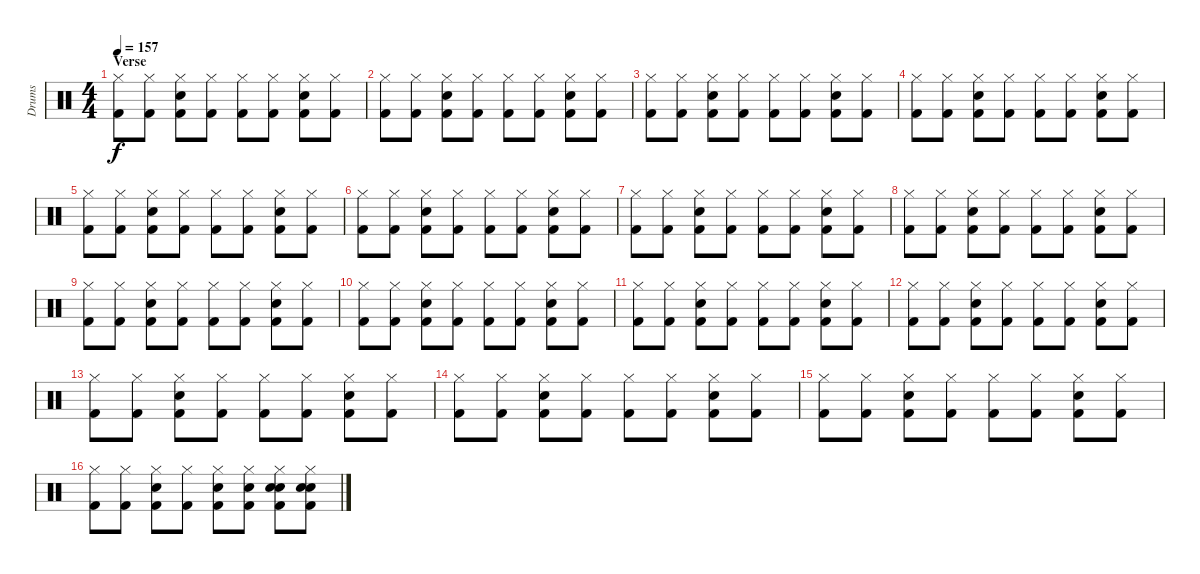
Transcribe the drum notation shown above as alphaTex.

\track ("Drums" "Drums") {instrument percussion}
\staff {score}
\articulation defaults
\ts (4 4)
\section ("" "Verse")
\tempo 157
\clef neutral
\ks c
("Hi-Hat (closed)" "Kick (hit) 2").8{dy f} ("Hi-Hat (closed)" "Kick (hit) 2").8 ("Hi-Hat (closed)" "Electric Snare (hit)" "Kick (hit) 2").8 ("Hi-Hat (closed)" "Kick (hit) 2").8 ("Hi-Hat (closed)" "Kick (hit) 2").8 ("Hi-Hat (closed)" "Kick (hit) 2").8 ("Hi-Hat (closed)" "Kick (hit) 2" "Electric Snare (hit)").8 ("Hi-Hat (closed)" "Kick (hit) 2").8 |
("Hi-Hat (closed)" "Kick (hit) 2").8 ("Hi-Hat (closed)" "Kick (hit) 2").8 ("Hi-Hat (closed)" "Electric Snare (hit)" "Kick (hit) 2").8 ("Hi-Hat (closed)" "Kick (hit) 2").8 ("Hi-Hat (closed)" "Kick (hit) 2").8 ("Hi-Hat (closed)" "Kick (hit) 2").8 ("Hi-Hat (closed)" "Kick (hit) 2" "Electric Snare (hit)").8 ("Hi-Hat (closed)" "Kick (hit) 2").8 |
("Hi-Hat (closed)" "Kick (hit) 2").8 ("Hi-Hat (closed)" "Kick (hit) 2").8 ("Hi-Hat (closed)" "Electric Snare (hit)" "Kick (hit) 2").8 ("Hi-Hat (closed)" "Kick (hit) 2").8 ("Hi-Hat (closed)" "Kick (hit) 2").8 ("Hi-Hat (closed)" "Kick (hit) 2").8 ("Hi-Hat (closed)" "Kick (hit) 2" "Electric Snare (hit)").8 ("Hi-Hat (closed)" "Kick (hit) 2").8 |
("Hi-Hat (closed)" "Kick (hit) 2").8 ("Hi-Hat (closed)" "Kick (hit) 2").8 ("Hi-Hat (closed)" "Electric Snare (hit)" "Kick (hit) 2").8 ("Hi-Hat (closed)" "Kick (hit) 2").8 ("Hi-Hat (closed)" "Kick (hit) 2").8 ("Hi-Hat (closed)" "Kick (hit) 2").8 ("Hi-Hat (closed)" "Kick (hit) 2" "Electric Snare (hit)").8 ("Hi-Hat (closed)" "Kick (hit) 2").8 |
("Hi-Hat (closed)" "Kick (hit) 2").8 ("Hi-Hat (closed)" "Kick (hit) 2").8 ("Hi-Hat (closed)" "Electric Snare (hit)" "Kick (hit) 2").8 ("Hi-Hat (closed)" "Kick (hit) 2").8 ("Hi-Hat (closed)" "Kick (hit) 2").8 ("Hi-Hat (closed)" "Kick (hit) 2").8 ("Hi-Hat (closed)" "Kick (hit) 2" "Electric Snare (hit)").8 ("Hi-Hat (closed)" "Kick (hit) 2").8 |
("Hi-Hat (closed)" "Kick (hit) 2").8 ("Hi-Hat (closed)" "Kick (hit) 2").8 ("Hi-Hat (closed)" "Electric Snare (hit)" "Kick (hit) 2").8 ("Hi-Hat (closed)" "Kick (hit) 2").8 ("Hi-Hat (closed)" "Kick (hit) 2").8 ("Hi-Hat (closed)" "Kick (hit) 2").8 ("Hi-Hat (closed)" "Kick (hit) 2" "Electric Snare (hit)").8 ("Hi-Hat (closed)" "Kick (hit) 2").8 |
("Hi-Hat (closed)" "Kick (hit) 2").8 ("Hi-Hat (closed)" "Kick (hit) 2").8 ("Hi-Hat (closed)" "Electric Snare (hit)" "Kick (hit) 2").8 ("Hi-Hat (closed)" "Kick (hit) 2").8 ("Hi-Hat (closed)" "Kick (hit) 2").8 ("Hi-Hat (closed)" "Kick (hit) 2").8 ("Hi-Hat (closed)" "Kick (hit) 2" "Electric Snare (hit)").8 ("Hi-Hat (closed)" "Kick (hit) 2").8 |
("Hi-Hat (closed)" "Kick (hit) 2").8 ("Hi-Hat (closed)" "Kick (hit) 2").8 ("Hi-Hat (closed)" "Electric Snare (hit)" "Kick (hit) 2").8 ("Hi-Hat (closed)" "Kick (hit) 2").8 ("Hi-Hat (closed)" "Kick (hit) 2").8 ("Hi-Hat (closed)" "Kick (hit) 2").8 ("Hi-Hat (closed)" "Kick (hit) 2" "Electric Snare (hit)").8 ("Hi-Hat (closed)" "Kick (hit) 2").8 |
("Hi-Hat (closed)" "Kick (hit) 2").8 ("Hi-Hat (closed)" "Kick (hit) 2").8 ("Hi-Hat (closed)" "Electric Snare (hit)" "Kick (hit) 2").8 ("Hi-Hat (closed)" "Kick (hit) 2").8 ("Hi-Hat (closed)" "Kick (hit) 2").8 ("Hi-Hat (closed)" "Kick (hit) 2").8 ("Hi-Hat (closed)" "Kick (hit) 2" "Electric Snare (hit)").8 ("Hi-Hat (closed)" "Kick (hit) 2").8 |
("Hi-Hat (closed)" "Kick (hit) 2").8 ("Hi-Hat (closed)" "Kick (hit) 2").8 ("Hi-Hat (closed)" "Electric Snare (hit)" "Kick (hit) 2").8 ("Hi-Hat (closed)" "Kick (hit) 2").8 ("Hi-Hat (closed)" "Kick (hit) 2").8 ("Hi-Hat (closed)" "Kick (hit) 2").8 ("Hi-Hat (closed)" "Kick (hit) 2" "Electric Snare (hit)").8 ("Hi-Hat (closed)" "Kick (hit) 2").8 |
("Hi-Hat (closed)" "Kick (hit) 2").8 ("Hi-Hat (closed)" "Kick (hit) 2").8 ("Hi-Hat (closed)" "Electric Snare (hit)" "Kick (hit) 2").8 ("Hi-Hat (closed)" "Kick (hit) 2").8 ("Hi-Hat (closed)" "Kick (hit) 2").8 ("Hi-Hat (closed)" "Kick (hit) 2").8 ("Hi-Hat (closed)" "Kick (hit) 2" "Electric Snare (hit)").8 ("Hi-Hat (closed)" "Kick (hit) 2").8 |
("Hi-Hat (closed)" "Kick (hit) 2").8 ("Hi-Hat (closed)" "Kick (hit) 2").8 ("Hi-Hat (closed)" "Electric Snare (hit)" "Kick (hit) 2").8 ("Hi-Hat (closed)" "Kick (hit) 2").8 ("Hi-Hat (closed)" "Kick (hit) 2").8 ("Hi-Hat (closed)" "Kick (hit) 2").8 ("Hi-Hat (closed)" "Kick (hit) 2" "Electric Snare (hit)").8 ("Hi-Hat (closed)" "Kick (hit) 2").8 |
("Hi-Hat (closed)" "Kick (hit) 2").8 ("Hi-Hat (closed)" "Kick (hit) 2").8 ("Hi-Hat (closed)" "Electric Snare (hit)" "Kick (hit) 2").8 ("Hi-Hat (closed)" "Kick (hit) 2").8 ("Hi-Hat (closed)" "Kick (hit) 2").8 ("Hi-Hat (closed)" "Kick (hit) 2").8 ("Hi-Hat (closed)" "Kick (hit) 2" "Electric Snare (hit)").8 ("Hi-Hat (closed)" "Kick (hit) 2").8 |
("Hi-Hat (closed)" "Kick (hit) 2").8 ("Hi-Hat (closed)" "Kick (hit) 2").8 ("Hi-Hat (closed)" "Electric Snare (hit)" "Kick (hit) 2").8 ("Hi-Hat (closed)" "Kick (hit) 2").8 ("Hi-Hat (closed)" "Kick (hit) 2").8 ("Hi-Hat (closed)" "Kick (hit) 2").8 ("Hi-Hat (closed)" "Kick (hit) 2" "Electric Snare (hit)").8 ("Hi-Hat (closed)" "Kick (hit) 2").8 |
("Hi-Hat (closed)" "Kick (hit) 2").8 ("Hi-Hat (closed)" "Kick (hit) 2").8 ("Hi-Hat (closed)" "Electric Snare (hit)" "Kick (hit) 2").8 ("Hi-Hat (closed)" "Kick (hit) 2").8 ("Hi-Hat (closed)" "Kick (hit) 2").8 ("Hi-Hat (closed)" "Kick (hit) 2").8 ("Hi-Hat (closed)" "Kick (hit) 2" "Electric Snare (hit)").8 ("Hi-Hat (closed)" "Kick (hit) 2").8 |
("Hi-Hat (closed)" "Kick (hit) 2").8 ("Hi-Hat (closed)" "Kick (hit) 2").8 ("Hi-Hat (closed)" "Electric Snare (hit)" "Kick (hit) 2").8 ("Hi-Hat (closed)" "Kick (hit) 2").8 ("Hi-Hat (closed)" "Electric Snare (hit)" "Kick (hit) 2").8 ("Hi-Hat (closed)" "Electric Snare (hit)" "Kick (hit) 2").8 ("Hi-Hat (closed)" "Electric Snare (hit)" "Kick (hit) 2" "Electric Snare (hit)").8 ("Hi-Hat (closed)" "Electric Snare (hit)" "Electric Snare (hit)" "Kick (hit) 2").8
